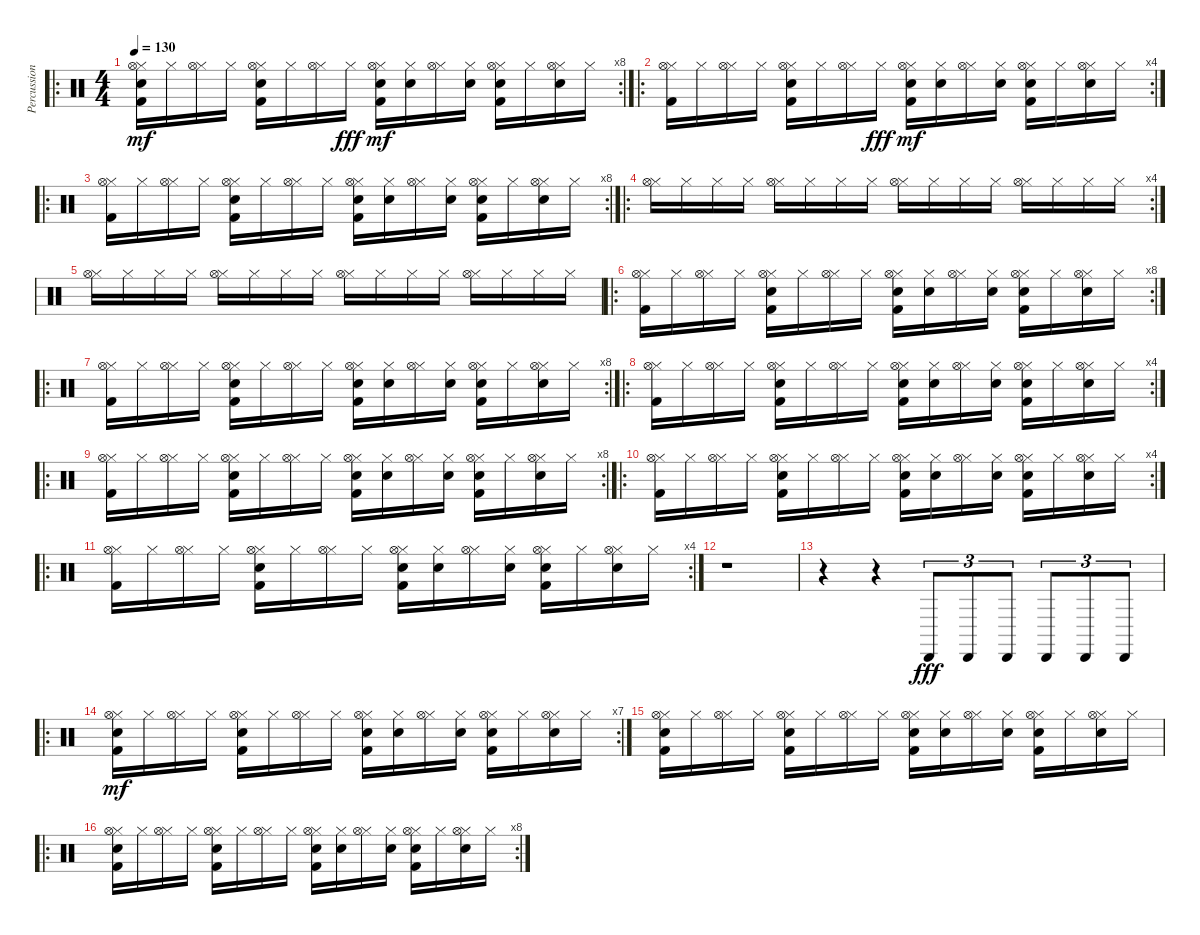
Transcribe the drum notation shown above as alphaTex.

\track ("Percussion" "Percussion") {instrument percussion}
\staff {score}
\articulation defaults
\ro
\rc 8
\ts (4 4)
\tempo 130
\clef neutral
\ks c
("Hi-Hat (closed)" "Hi-Hat (open)" "Electric Snare (hit)" "Kick (hit) 2").16{dy mf volume 10} "Hi-Hat (closed)".16 ("Hi-Hat (closed)" "Hi-Hat (open)").16 "Hi-Hat (closed)".16 ("Hi-Hat (closed)" "Hi-Hat (open)" "Electric Snare (hit)" "Kick (hit) 2").16 "Hi-Hat (closed)".16 ("Hi-Hat (closed)" "Hi-Hat (open)").16 "Hi-Hat (closed)".16{dy fff} ("Hi-Hat (closed)" "Hi-Hat (open)" "Electric Snare (hit)" "Kick (hit) 2").16{dy mf} ("Hi-Hat (closed)" "Electric Snare (hit)").16 ("Hi-Hat (closed)" "Hi-Hat (open)").16 ("Hi-Hat (closed)" "Electric Snare (hit)").16 ("Hi-Hat (closed)" "Hi-Hat (open)" "Electric Snare (hit)" "Kick (hit) 2").16 "Hi-Hat (closed)".16 ("Hi-Hat (closed)" "Hi-Hat (open)" "Electric Snare (hit)").16 "Hi-Hat (closed)".16 |
\ro
\rc 4
("Hi-Hat (closed)" "Hi-Hat (open)" "Kick (hit) 2").16{volume 16} "Hi-Hat (closed)".16 ("Hi-Hat (closed)" "Hi-Hat (open)").16 "Hi-Hat (closed)".16 ("Hi-Hat (closed)" "Hi-Hat (open)" "Electric Snare (hit)" "Kick (hit) 2").16 "Hi-Hat (closed)".16 ("Hi-Hat (closed)" "Hi-Hat (open)").16 "Hi-Hat (closed)".16{dy fff} ("Hi-Hat (closed)" "Hi-Hat (open)" "Electric Snare (hit)" "Kick (hit) 2").16{dy mf} ("Hi-Hat (closed)" "Electric Snare (hit)").16 ("Hi-Hat (closed)" "Hi-Hat (open)").16 ("Hi-Hat (closed)" "Electric Snare (hit)").16 ("Hi-Hat (closed)" "Hi-Hat (open)" "Electric Snare (hit)" "Kick (hit) 2").16 "Hi-Hat (closed)".16 ("Hi-Hat (closed)" "Hi-Hat (open)" "Electric Snare (hit)").16 "Hi-Hat (closed)".16 |
\ro
\rc 8
("Hi-Hat (closed)" "Hi-Hat (open)" "Kick (hit) 2").16{volume 16} "Hi-Hat (closed)".16 ("Hi-Hat (closed)" "Hi-Hat (open)").16 "Hi-Hat (closed)".16 ("Hi-Hat (closed)" "Hi-Hat (open)" "Electric Snare (hit)" "Kick (hit) 2").16 "Hi-Hat (closed)".16 ("Hi-Hat (closed)" "Hi-Hat (open)").16 "Hi-Hat (closed)".16 ("Hi-Hat (closed)" "Hi-Hat (open)" "Electric Snare (hit)" "Kick (hit) 2").16 ("Hi-Hat (closed)" "Electric Snare (hit)").16 ("Hi-Hat (closed)" "Hi-Hat (open)").16 ("Hi-Hat (closed)" "Electric Snare (hit)").16 ("Hi-Hat (closed)" "Hi-Hat (open)" "Electric Snare (hit)" "Kick (hit) 2").16 "Hi-Hat (closed)".16 ("Hi-Hat (closed)" "Hi-Hat (open)" "Electric Snare (hit)").16 "Hi-Hat (closed)".16 |
\ro
\rc 4
("Hi-Hat (closed)" "Hi-Hat (open)").16 "Hi-Hat (closed)".16 "Hi-Hat (closed)".16 "Hi-Hat (closed)".16 ("Hi-Hat (closed)" "Hi-Hat (open)").16 "Hi-Hat (closed)".16 "Hi-Hat (closed)".16 "Hi-Hat (closed)".16 ("Hi-Hat (closed)" "Hi-Hat (open)").16 "Hi-Hat (closed)".16 "Hi-Hat (closed)".16 "Hi-Hat (closed)".16 ("Hi-Hat (closed)" "Hi-Hat (open)").16 "Hi-Hat (closed)".16 "Hi-Hat (closed)".16 "Hi-Hat (closed)".16 |
("Hi-Hat (closed)" "Hi-Hat (open)").16 "Hi-Hat (closed)".16 "Hi-Hat (closed)".16 "Hi-Hat (closed)".16 ("Hi-Hat (closed)" "Hi-Hat (open)").16 "Hi-Hat (closed)".16 "Hi-Hat (closed)".16 "Hi-Hat (closed)".16 ("Hi-Hat (closed)" "Hi-Hat (open)").16 "Hi-Hat (closed)".16 "Hi-Hat (closed)".16 "Hi-Hat (closed)".16 ("Hi-Hat (closed)" "Hi-Hat (open)").16 "Hi-Hat (closed)".16 "Hi-Hat (closed)".16 "Hi-Hat (closed)".16 |
\ro
\rc 8
("Hi-Hat (closed)" "Hi-Hat (open)" "Kick (hit) 2").16 "Hi-Hat (closed)".16 ("Hi-Hat (closed)" "Hi-Hat (open)").16 "Hi-Hat (closed)".16 ("Hi-Hat (closed)" "Hi-Hat (open)" "Electric Snare (hit)" "Kick (hit) 2").16 "Hi-Hat (closed)".16 ("Hi-Hat (closed)" "Hi-Hat (open)").16 "Hi-Hat (closed)".16 ("Hi-Hat (closed)" "Hi-Hat (open)" "Electric Snare (hit)" "Kick (hit) 2").16 ("Hi-Hat (closed)" "Electric Snare (hit)").16 ("Hi-Hat (closed)" "Hi-Hat (open)").16 ("Hi-Hat (closed)" "Electric Snare (hit)").16 ("Hi-Hat (closed)" "Hi-Hat (open)" "Electric Snare (hit)" "Kick (hit) 2").16 "Hi-Hat (closed)".16 ("Hi-Hat (closed)" "Hi-Hat (open)" "Electric Snare (hit)").16 "Hi-Hat (closed)".16 |
\ro
\rc 8
("Hi-Hat (closed)" "Hi-Hat (open)" "Kick (hit) 2").16 "Hi-Hat (closed)".16 ("Hi-Hat (closed)" "Hi-Hat (open)").16 "Hi-Hat (closed)".16 ("Hi-Hat (closed)" "Hi-Hat (open)" "Electric Snare (hit)" "Kick (hit) 2").16 "Hi-Hat (closed)".16 ("Hi-Hat (closed)" "Hi-Hat (open)").16 "Hi-Hat (closed)".16 ("Hi-Hat (closed)" "Hi-Hat (open)" "Electric Snare (hit)" "Kick (hit) 2").16 ("Hi-Hat (closed)" "Electric Snare (hit)").16 ("Hi-Hat (closed)" "Hi-Hat (open)").16 ("Hi-Hat (closed)" "Electric Snare (hit)").16 ("Hi-Hat (closed)" "Hi-Hat (open)" "Electric Snare (hit)" "Kick (hit) 2").16 "Hi-Hat (closed)".16 ("Hi-Hat (closed)" "Hi-Hat (open)" "Electric Snare (hit)").16 "Hi-Hat (closed)".16 |
\ro
\rc 4
("Hi-Hat (closed)" "Hi-Hat (open)" "Kick (hit) 2").16 "Hi-Hat (closed)".16 ("Hi-Hat (closed)" "Hi-Hat (open)").16 "Hi-Hat (closed)".16 ("Hi-Hat (closed)" "Hi-Hat (open)" "Electric Snare (hit)" "Kick (hit) 2").16 "Hi-Hat (closed)".16 ("Hi-Hat (closed)" "Hi-Hat (open)").16 "Hi-Hat (closed)".16 ("Hi-Hat (closed)" "Hi-Hat (open)" "Electric Snare (hit)" "Kick (hit) 2").16 ("Hi-Hat (closed)" "Electric Snare (hit)").16 ("Hi-Hat (closed)" "Hi-Hat (open)").16 ("Hi-Hat (closed)" "Electric Snare (hit)").16 ("Hi-Hat (closed)" "Hi-Hat (open)" "Electric Snare (hit)" "Kick (hit) 2").16 "Hi-Hat (closed)".16 ("Hi-Hat (closed)" "Hi-Hat (open)" "Electric Snare (hit)").16 "Hi-Hat (closed)".16 |
\ro
\rc 8
("Hi-Hat (closed)" "Hi-Hat (open)" "Kick (hit) 2").16 "Hi-Hat (closed)".16 ("Hi-Hat (closed)" "Hi-Hat (open)").16 "Hi-Hat (closed)".16 ("Hi-Hat (closed)" "Hi-Hat (open)" "Electric Snare (hit)" "Kick (hit) 2").16 "Hi-Hat (closed)".16 ("Hi-Hat (closed)" "Hi-Hat (open)").16 "Hi-Hat (closed)".16 ("Hi-Hat (closed)" "Hi-Hat (open)" "Electric Snare (hit)" "Kick (hit) 2").16 ("Hi-Hat (closed)" "Electric Snare (hit)").16 ("Hi-Hat (closed)" "Hi-Hat (open)").16 ("Hi-Hat (closed)" "Electric Snare (hit)").16 ("Hi-Hat (closed)" "Hi-Hat (open)" "Electric Snare (hit)" "Kick (hit) 2").16 "Hi-Hat (closed)".16 ("Hi-Hat (closed)" "Hi-Hat (open)" "Electric Snare (hit)").16 "Hi-Hat (closed)".16 |
\ro
\rc 4
("Hi-Hat (closed)" "Hi-Hat (open)" "Kick (hit) 2").16 "Hi-Hat (closed)".16 ("Hi-Hat (closed)" "Hi-Hat (open)").16 "Hi-Hat (closed)".16 ("Hi-Hat (closed)" "Hi-Hat (open)" "Electric Snare (hit)" "Kick (hit) 2").16 "Hi-Hat (closed)".16 ("Hi-Hat (closed)" "Hi-Hat (open)").16 "Hi-Hat (closed)".16 ("Hi-Hat (closed)" "Hi-Hat (open)" "Electric Snare (hit)" "Kick (hit) 2").16 ("Hi-Hat (closed)" "Electric Snare (hit)").16 ("Hi-Hat (closed)" "Hi-Hat (open)").16 ("Hi-Hat (closed)" "Electric Snare (hit)").16 ("Hi-Hat (closed)" "Hi-Hat (open)" "Electric Snare (hit)" "Kick (hit) 2").16 "Hi-Hat (closed)".16 ("Hi-Hat (closed)" "Hi-Hat (open)" "Electric Snare (hit)").16 "Hi-Hat (closed)".16 |
\ro
\rc 4
("Hi-Hat (closed)" "Hi-Hat (open)" "Kick (hit) 2").16 "Hi-Hat (closed)".16 ("Hi-Hat (closed)" "Hi-Hat (open)").16 "Hi-Hat (closed)".16 ("Hi-Hat (closed)" "Hi-Hat (open)" "Electric Snare (hit)" "Kick (hit) 2").16 "Hi-Hat (closed)".16 ("Hi-Hat (closed)" "Hi-Hat (open)").16 "Hi-Hat (closed)".16 ("Hi-Hat (closed)" "Hi-Hat (open)" "Electric Snare (hit)" "Kick (hit) 2").16 ("Hi-Hat (closed)" "Electric Snare (hit)").16 ("Hi-Hat (closed)" "Hi-Hat (open)").16 ("Hi-Hat (closed)" "Electric Snare (hit)").16 ("Hi-Hat (closed)" "Hi-Hat (open)" "Electric Snare (hit)" "Kick (hit) 2").16 "Hi-Hat (closed)".16 ("Hi-Hat (closed)" "Hi-Hat (open)" "Electric Snare (hit)").16 "Hi-Hat (closed)".16 |
r.1 |
r.4 r.4 "Cabasa (hit)".8{tu (3 2) dy fff} "Cabasa (hit)".8{tu (3 2)} "Cabasa (hit)".8{tu (3 2)} "Cabasa (hit)".8{tu (3 2)} "Cabasa (hit)".8{tu (3 2)} "Cabasa (hit)".8{tu (3 2)} |
\ro
\rc 7
("Hi-Hat (closed)" "Hi-Hat (open)" "Electric Snare (hit)" "Kick (hit) 2").16{dy mf} "Hi-Hat (closed)".16 ("Hi-Hat (closed)" "Hi-Hat (open)").16 "Hi-Hat (closed)".16 ("Hi-Hat (closed)" "Hi-Hat (open)" "Electric Snare (hit)" "Kick (hit) 2").16 "Hi-Hat (closed)".16 ("Hi-Hat (closed)" "Hi-Hat (open)").16 "Hi-Hat (closed)".16 ("Hi-Hat (closed)" "Hi-Hat (open)" "Electric Snare (hit)" "Kick (hit) 2").16 ("Hi-Hat (closed)" "Electric Snare (hit)").16 ("Hi-Hat (closed)" "Hi-Hat (open)").16 ("Hi-Hat (closed)" "Electric Snare (hit)").16 ("Hi-Hat (closed)" "Hi-Hat (open)" "Electric Snare (hit)" "Kick (hit) 2").16 "Hi-Hat (closed)".16 ("Hi-Hat (closed)" "Hi-Hat (open)" "Electric Snare (hit)").16 "Hi-Hat (closed)".16 |
("Hi-Hat (closed)" "Hi-Hat (open)" "Electric Snare (hit)" "Kick (hit) 2").16 "Hi-Hat (closed)".16 ("Hi-Hat (closed)" "Hi-Hat (open)").16 "Hi-Hat (closed)".16 ("Hi-Hat (closed)" "Hi-Hat (open)" "Electric Snare (hit)" "Kick (hit) 2").16 "Hi-Hat (closed)".16 ("Hi-Hat (closed)" "Hi-Hat (open)").16 "Hi-Hat (closed)".16 ("Hi-Hat (closed)" "Hi-Hat (open)" "Electric Snare (hit)" "Kick (hit) 2").16 ("Hi-Hat (closed)" "Electric Snare (hit)").16 ("Hi-Hat (closed)" "Hi-Hat (open)").16 ("Hi-Hat (closed)" "Electric Snare (hit)").16 ("Hi-Hat (closed)" "Hi-Hat (open)" "Electric Snare (hit)" "Kick (hit) 2").16 "Hi-Hat (closed)".16 ("Hi-Hat (closed)" "Hi-Hat (open)" "Electric Snare (hit)").16 "Hi-Hat (closed)".16 |
\ro
\rc 8
("Hi-Hat (closed)" "Hi-Hat (open)" "Electric Snare (hit)" "Kick (hit) 2").16 "Hi-Hat (closed)".16 ("Hi-Hat (closed)" "Hi-Hat (open)").16 "Hi-Hat (closed)".16 ("Hi-Hat (closed)" "Hi-Hat (open)" "Electric Snare (hit)" "Kick (hit) 2").16 "Hi-Hat (closed)".16 ("Hi-Hat (closed)" "Hi-Hat (open)").16 "Hi-Hat (closed)".16 ("Hi-Hat (closed)" "Hi-Hat (open)" "Electric Snare (hit)" "Kick (hit) 2").16 ("Hi-Hat (closed)" "Electric Snare (hit)").16 ("Hi-Hat (closed)" "Hi-Hat (open)").16 ("Hi-Hat (closed)" "Electric Snare (hit)").16 ("Hi-Hat (closed)" "Hi-Hat (open)" "Electric Snare (hit)" "Kick (hit) 2").16 "Hi-Hat (closed)".16 ("Hi-Hat (closed)" "Hi-Hat (open)" "Electric Snare (hit)").16 "Hi-Hat (closed)".16
